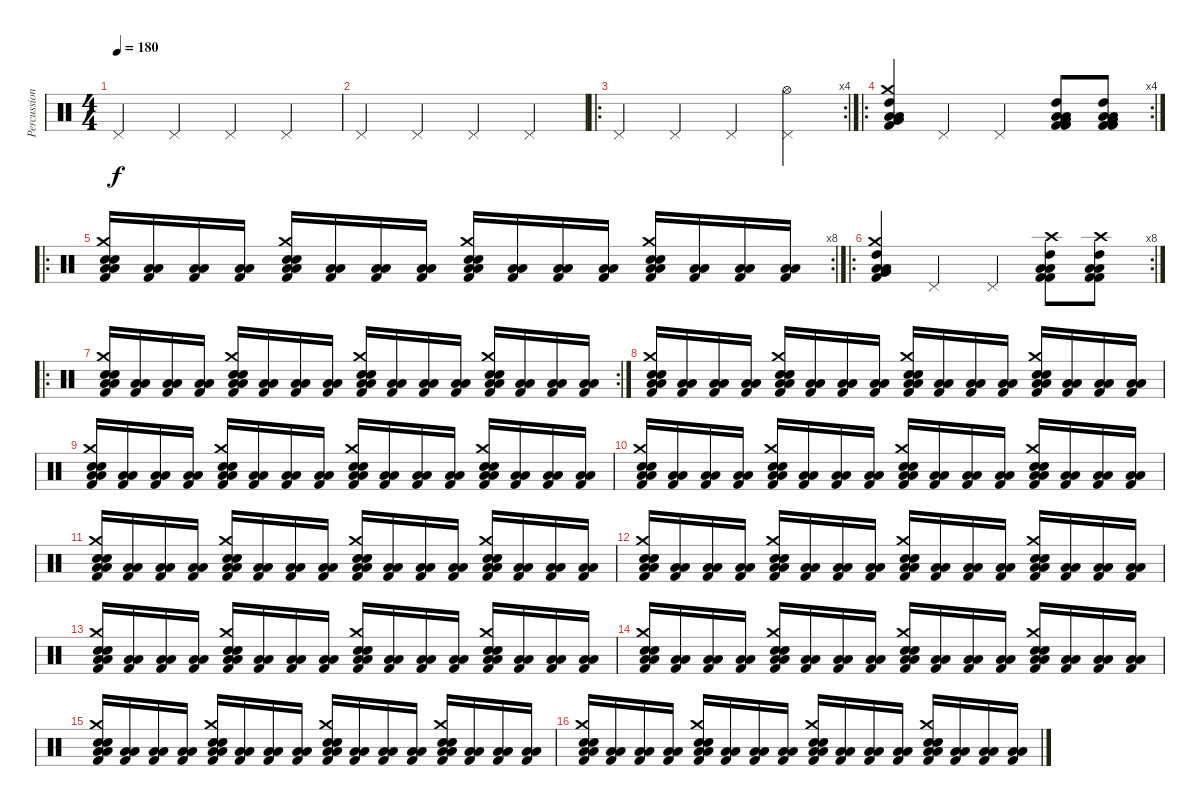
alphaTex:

\track ("Percussions" "Percussion") {instrument percussion}
\staff {score}
\articulation defaults
\ts (4 4)
\tempo 180
\clef neutral
\ks c "Pedal Hi-Hat (hit)".4{dy f volume 8} "Pedal Hi-Hat (hit)".4 "Pedal Hi-Hat (hit)".4 "Pedal Hi-Hat (hit)".4
|
"Pedal Hi-Hat (hit)".4 "Pedal Hi-Hat (hit)".4 "Pedal Hi-Hat (hit)".4 "Pedal Hi-Hat (hit)".4 |
\ro
\rc 4 "Pedal Hi-Hat (hit)".4{volume 16} "Pedal Hi-Hat (hit)".4 "Pedal Hi-Hat (hit)".4
("Hi-Hat (open)" "Pedal Hi-Hat (hit)").4 |
\ro
\rc 4
("Low Floor Tom (hit)" "Crash medium (hit)" "Kick (hit) 2" "Low Floor Tom (hit)" "High Tom (hit)" "Very Low Tom (hit)").4 "Pedal Hi-Hat (hit)".4 "Pedal Hi-Hat (hit)".4 ("Low Floor Tom (hit)" "Kick (hit) 2" "Kick (hit) 2" "Low Floor Tom (hit)" "High Tom (hit)" "Very Low Tom (hit)").8 ("Low Floor Tom (hit)" "Kick (hit) 2" "Kick (hit) 2" "Low Floor Tom (hit)" "High Tom (hit)" "Very Low Tom (hit)").8 |
\ro
\rc 8
("Low Floor Tom (hit)" "Kick (hit) 2" "Low Floor Tom (hit)" "Snare (hit) 2" "Electric Snare (hit)" "Crash medium (hit)").16 ("Low Floor Tom (hit)" "Kick (hit) 2" "Low Floor Tom (hit)").16 ("Low Floor Tom (hit)" "Kick (hit) 2" "Low Floor Tom (hit)").16 ("Low Floor Tom (hit)" "Kick (hit) 2" "Low Floor Tom (hit)").16 ("Low Floor Tom (hit)" "Kick (hit) 2" "Low Floor Tom (hit)" "Snare (hit) 2" "Electric Snare (hit)" "Crash medium (hit)").16 ("Low Floor Tom (hit)" "Kick (hit) 2" "Low Floor Tom (hit)").16 ("Low Floor Tom (hit)" "Kick (hit) 2" "Low Floor Tom (hit)").16 ("Low Floor Tom (hit)" "Kick (hit) 2" "Low Floor Tom (hit)").16 ("Low Floor Tom (hit)" "Kick (hit) 2" "Low Floor Tom (hit)" "Snare (hit) 2" "Electric Snare (hit)" "Crash medium (hit)").16 ("Low Floor Tom (hit)" "Kick (hit) 2" "Low Floor Tom (hit)").16 ("Low Floor Tom (hit)" "Kick (hit) 2" "Low Floor Tom (hit)").16 ("Low Floor Tom (hit)" "Kick (hit) 2" "Low Floor Tom (hit)").16 ("Low Floor Tom (hit)" "Kick (hit) 2" "Low Floor Tom (hit)" "Snare (hit) 2" "Electric Snare (hit)" "Crash medium (hit)").16 ("Low Floor Tom (hit)" "Kick (hit) 2" "Low Floor Tom (hit)").16 ("Low Floor Tom (hit)" "Kick (hit) 2" "Low Floor Tom (hit)").16 ("Low Floor Tom (hit)" "Kick (hit) 2" "Low Floor Tom (hit)").16 |
\ro
\rc 8
("Low Floor Tom (hit)" "Crash medium (hit)" "Kick (hit) 2" "Low Floor Tom (hit)" "High Tom (hit)" "Very Low Tom (hit)").4 "Pedal Hi-Hat (hit)".4 "Pedal Hi-Hat (hit)".4 ("Low Floor Tom (hit)" "Kick (hit) 2" "Kick (hit) 2" "Low Floor Tom (hit)" "High Tom (hit)" "Crash high (hit)").8 ("Low Floor Tom (hit)" "Kick (hit) 2" "Kick (hit) 2" "Low Floor Tom (hit)" "High Tom (hit)" "Crash high (hit)").8 |
\ro
\rc 2
("Low Floor Tom (hit)" "Kick (hit) 2" "Low Floor Tom (hit)" "Snare (hit) 2" "Electric Snare (hit)" "Crash medium (hit)").16 ("Low Floor Tom (hit)" "Kick (hit) 2" "Low Floor Tom (hit)").16 ("Low Floor Tom (hit)" "Kick (hit) 2" "Low Floor Tom (hit)").16 ("Low Floor Tom (hit)" "Kick (hit) 2" "Low Floor Tom (hit)").16 ("Low Floor Tom (hit)" "Kick (hit) 2" "Low Floor Tom (hit)" "Snare (hit) 2" "Electric Snare (hit)" "Crash medium (hit)").16 ("Low Floor Tom (hit)" "Kick (hit) 2" "Low Floor Tom (hit)").16 ("Low Floor Tom (hit)" "Kick (hit) 2" "Low Floor Tom (hit)").16 ("Low Floor Tom (hit)" "Kick (hit) 2" "Low Floor Tom (hit)").16 ("Low Floor Tom (hit)" "Kick (hit) 2" "Low Floor Tom (hit)" "Snare (hit) 2" "Electric Snare (hit)" "Crash medium (hit)").16 ("Low Floor Tom (hit)" "Kick (hit) 2" "Low Floor Tom (hit)").16 ("Low Floor Tom (hit)" "Kick (hit) 2" "Low Floor Tom (hit)").16 ("Low Floor Tom (hit)" "Kick (hit) 2" "Low Floor Tom (hit)").16 ("Low Floor Tom (hit)" "Kick (hit) 2" "Low Floor Tom (hit)" "Snare (hit) 2" "Electric Snare (hit)" "Crash medium (hit)").16 ("Low Floor Tom (hit)" "Kick (hit) 2" "Low Floor Tom (hit)").16 ("Low Floor Tom (hit)" "Kick (hit) 2" "Low Floor Tom (hit)").16 ("Low Floor Tom (hit)" "Kick (hit) 2" "Low Floor Tom (hit)").16 |
("Low Floor Tom (hit)" "Kick (hit) 2" "Low Floor Tom (hit)" "Snare (hit) 2" "Electric Snare (hit)" "Crash medium (hit)").16{volume 13} ("Low Floor Tom (hit)" "Kick (hit) 2" "Low Floor Tom (hit)").16 ("Low Floor Tom (hit)" "Kick (hit) 2" "Low Floor Tom (hit)").16 ("Low Floor Tom (hit)" "Kick (hit) 2" "Low Floor Tom (hit)").16 ("Low Floor Tom (hit)" "Kick (hit) 2" "Low Floor Tom (hit)" "Snare (hit) 2" "Electric Snare (hit)" "Crash medium (hit)").16 ("Low Floor Tom (hit)" "Kick (hit) 2" "Low Floor Tom (hit)").16 ("Low Floor Tom (hit)" "Kick (hit) 2" "Low Floor Tom (hit)").16 ("Low Floor Tom (hit)" "Kick (hit) 2" "Low Floor Tom (hit)").16 ("Low Floor Tom (hit)" "Kick (hit) 2" "Low Floor Tom (hit)" "Snare (hit) 2" "Electric Snare (hit)" "Crash medium (hit)").16 ("Low Floor Tom (hit)" "Kick (hit) 2" "Low Floor Tom (hit)").16 ("Low Floor Tom (hit)" "Kick (hit) 2" "Low Floor Tom (hit)").16 ("Low Floor Tom (hit)" "Kick (hit) 2" "Low Floor Tom (hit)").16 ("Low Floor Tom (hit)" "Kick (hit) 2" "Low Floor Tom (hit)" "Snare (hit) 2" "Electric Snare (hit)" "Crash medium (hit)").16 ("Low Floor Tom (hit)" "Kick (hit) 2" "Low Floor Tom (hit)").16 ("Low Floor Tom (hit)" "Kick (hit) 2" "Low Floor Tom (hit)").16 ("Low Floor Tom (hit)" "Kick (hit) 2" "Low Floor Tom (hit)").16 |
("Low Floor Tom (hit)" "Kick (hit) 2" "Low Floor Tom (hit)" "Snare (hit) 2" "Electric Snare (hit)" "Crash medium (hit)").16{volume 11} ("Low Floor Tom (hit)" "Kick (hit) 2" "Low Floor Tom (hit)").16 ("Low Floor Tom (hit)" "Kick (hit) 2" "Low Floor Tom (hit)").16 ("Low Floor Tom (hit)" "Kick (hit) 2" "Low Floor Tom (hit)").16 ("Low Floor Tom (hit)" "Kick (hit) 2" "Low Floor Tom (hit)" "Snare (hit) 2" "Electric Snare (hit)" "Crash medium (hit)").16 ("Low Floor Tom (hit)" "Kick (hit) 2" "Low Floor Tom (hit)").16 ("Low Floor Tom (hit)" "Kick (hit) 2" "Low Floor Tom (hit)").16 ("Low Floor Tom (hit)" "Kick (hit) 2" "Low Floor Tom (hit)").16 ("Low Floor Tom (hit)" "Kick (hit) 2" "Low Floor Tom (hit)" "Snare (hit) 2" "Electric Snare (hit)" "Crash medium (hit)").16 ("Low Floor Tom (hit)" "Kick (hit) 2" "Low Floor Tom (hit)").16 ("Low Floor Tom (hit)" "Kick (hit) 2" "Low Floor Tom (hit)").16 ("Low Floor Tom (hit)" "Kick (hit) 2" "Low Floor Tom (hit)").16 ("Low Floor Tom (hit)" "Kick (hit) 2" "Low Floor Tom (hit)" "Snare (hit) 2" "Electric Snare (hit)" "Crash medium (hit)").16 ("Low Floor Tom (hit)" "Kick (hit) 2" "Low Floor Tom (hit)").16 ("Low Floor Tom (hit)" "Kick (hit) 2" "Low Floor Tom (hit)").16 ("Low Floor Tom (hit)" "Kick (hit) 2" "Low Floor Tom (hit)").16 |
("Low Floor Tom (hit)" "Kick (hit) 2" "Low Floor Tom (hit)" "Snare (hit) 2" "Electric Snare (hit)" "Crash medium (hit)").16{volume 10} ("Low Floor Tom (hit)" "Kick (hit) 2" "Low Floor Tom (hit)").16 ("Low Floor Tom (hit)" "Kick (hit) 2" "Low Floor Tom (hit)").16 ("Low Floor Tom (hit)" "Kick (hit) 2" "Low Floor Tom (hit)").16 ("Low Floor Tom (hit)" "Kick (hit) 2" "Low Floor Tom (hit)" "Snare (hit) 2" "Electric Snare (hit)" "Crash medium (hit)").16 ("Low Floor Tom (hit)" "Kick (hit) 2" "Low Floor Tom (hit)").16 ("Low Floor Tom (hit)" "Kick (hit) 2" "Low Floor Tom (hit)").16 ("Low Floor Tom (hit)" "Kick (hit) 2" "Low Floor Tom (hit)").16 ("Low Floor Tom (hit)" "Kick (hit) 2" "Low Floor Tom (hit)" "Snare (hit) 2" "Electric Snare (hit)" "Crash medium (hit)").16 ("Low Floor Tom (hit)" "Kick (hit) 2" "Low Floor Tom (hit)").16 ("Low Floor Tom (hit)" "Kick (hit) 2" "Low Floor Tom (hit)").16 ("Low Floor Tom (hit)" "Kick (hit) 2" "Low Floor Tom (hit)").16 ("Low Floor Tom (hit)" "Kick (hit) 2" "Low Floor Tom (hit)" "Snare (hit) 2" "Electric Snare (hit)" "Crash medium (hit)").16 ("Low Floor Tom (hit)" "Kick (hit) 2" "Low Floor Tom (hit)").16 ("Low Floor Tom (hit)" "Kick (hit) 2" "Low Floor Tom (hit)").16 ("Low Floor Tom (hit)" "Kick (hit) 2" "Low Floor Tom (hit)").16 |
("Low Floor Tom (hit)" "Kick (hit) 2" "Low Floor Tom (hit)" "Snare (hit) 2" "Electric Snare (hit)" "Crash medium (hit)").16{volume 9} ("Low Floor Tom (hit)" "Kick (hit) 2" "Low Floor Tom (hit)").16 ("Low Floor Tom (hit)" "Kick (hit) 2" "Low Floor Tom (hit)").16 ("Low Floor Tom (hit)" "Kick (hit) 2" "Low Floor Tom (hit)").16 ("Low Floor Tom (hit)" "Kick (hit) 2" "Low Floor Tom (hit)" "Snare (hit) 2" "Electric Snare (hit)" "Crash medium (hit)").16 ("Low Floor Tom (hit)" "Kick (hit) 2" "Low Floor Tom (hit)").16 ("Low Floor Tom (hit)" "Kick (hit) 2" "Low Floor Tom (hit)").16 ("Low Floor Tom (hit)" "Kick (hit) 2" "Low Floor Tom (hit)").16 ("Low Floor Tom (hit)" "Kick (hit) 2" "Low Floor Tom (hit)" "Snare (hit) 2" "Electric Snare (hit)" "Crash medium (hit)").16 ("Low Floor Tom (hit)" "Kick (hit) 2" "Low Floor Tom (hit)").16 ("Low Floor Tom (hit)" "Kick (hit) 2" "Low Floor Tom (hit)").16 ("Low Floor Tom (hit)" "Kick (hit) 2" "Low Floor Tom (hit)").16 ("Low Floor Tom (hit)" "Kick (hit) 2" "Low Floor Tom (hit)" "Snare (hit) 2" "Electric Snare (hit)" "Crash medium (hit)").16 ("Low Floor Tom (hit)" "Kick (hit) 2" "Low Floor Tom (hit)").16 ("Low Floor Tom (hit)" "Kick (hit) 2" "Low Floor Tom (hit)").16 ("Low Floor Tom (hit)" "Kick (hit) 2" "Low Floor Tom (hit)").16 |
("Low Floor Tom (hit)" "Kick (hit) 2" "Low Floor Tom (hit)" "Snare (hit) 2" "Electric Snare (hit)" "Crash medium (hit)").16{volume 7} ("Low Floor Tom (hit)" "Kick (hit) 2" "Low Floor Tom (hit)").16 ("Low Floor Tom (hit)" "Kick (hit) 2" "Low Floor Tom (hit)").16 ("Low Floor Tom (hit)" "Kick (hit) 2" "Low Floor Tom (hit)").16 ("Low Floor Tom (hit)" "Kick (hit) 2" "Low Floor Tom (hit)" "Snare (hit) 2" "Electric Snare (hit)" "Crash medium (hit)").16 ("Low Floor Tom (hit)" "Kick (hit) 2" "Low Floor Tom (hit)").16 ("Low Floor Tom (hit)" "Kick (hit) 2" "Low Floor Tom (hit)").16 ("Low Floor Tom (hit)" "Kick (hit) 2" "Low Floor Tom (hit)").16 ("Low Floor Tom (hit)" "Kick (hit) 2" "Low Floor Tom (hit)" "Snare (hit) 2" "Electric Snare (hit)" "Crash medium (hit)").16 ("Low Floor Tom (hit)" "Kick (hit) 2" "Low Floor Tom (hit)").16 ("Low Floor Tom (hit)" "Kick (hit) 2" "Low Floor Tom (hit)").16 ("Low Floor Tom (hit)" "Kick (hit) 2" "Low Floor Tom (hit)").16 ("Low Floor Tom (hit)" "Kick (hit) 2" "Low Floor Tom (hit)" "Snare (hit) 2" "Electric Snare (hit)" "Crash medium (hit)").16 ("Low Floor Tom (hit)" "Kick (hit) 2" "Low Floor Tom (hit)").16 ("Low Floor Tom (hit)" "Kick (hit) 2" "Low Floor Tom (hit)").16 ("Low Floor Tom (hit)" "Kick (hit) 2" "Low Floor Tom (hit)").16 |
("Low Floor Tom (hit)" "Kick (hit) 2" "Low Floor Tom (hit)" "Snare (hit) 2" "Electric Snare (hit)" "Crash medium (hit)").16{volume 6} ("Low Floor Tom (hit)" "Kick (hit) 2" "Low Floor Tom (hit)").16 ("Low Floor Tom (hit)" "Kick (hit) 2" "Low Floor Tom (hit)").16 ("Low Floor Tom (hit)" "Kick (hit) 2" "Low Floor Tom (hit)").16 ("Low Floor Tom (hit)" "Kick (hit) 2" "Low Floor Tom (hit)" "Snare (hit) 2" "Electric Snare (hit)" "Crash medium (hit)").16 ("Low Floor Tom (hit)" "Kick (hit) 2" "Low Floor Tom (hit)").16 ("Low Floor Tom (hit)" "Kick (hit) 2" "Low Floor Tom (hit)").16 ("Low Floor Tom (hit)" "Kick (hit) 2" "Low Floor Tom (hit)").16 ("Low Floor Tom (hit)" "Kick (hit) 2" "Low Floor Tom (hit)" "Snare (hit) 2" "Electric Snare (hit)" "Crash medium (hit)").16 ("Low Floor Tom (hit)" "Kick (hit) 2" "Low Floor Tom (hit)").16 ("Low Floor Tom (hit)" "Kick (hit) 2" "Low Floor Tom (hit)").16 ("Low Floor Tom (hit)" "Kick (hit) 2" "Low Floor Tom (hit)").16 ("Low Floor Tom (hit)" "Kick (hit) 2" "Low Floor Tom (hit)" "Snare (hit) 2" "Electric Snare (hit)" "Crash medium (hit)").16 ("Low Floor Tom (hit)" "Kick (hit) 2" "Low Floor Tom (hit)").16 ("Low Floor Tom (hit)" "Kick (hit) 2" "Low Floor Tom (hit)").16 ("Low Floor Tom (hit)" "Kick (hit) 2" "Low Floor Tom (hit)").16 |
("Low Floor Tom (hit)" "Kick (hit) 2" "Low Floor Tom (hit)" "Snare (hit) 2" "Electric Snare (hit)" "Crash medium (hit)").16{volume 5} ("Low Floor Tom (hit)" "Kick (hit) 2" "Low Floor Tom (hit)").16 ("Low Floor Tom (hit)" "Kick (hit) 2" "Low Floor Tom (hit)").16 ("Low Floor Tom (hit)" "Kick (hit) 2" "Low Floor Tom (hit)").16 ("Low Floor Tom (hit)" "Kick (hit) 2" "Low Floor Tom (hit)" "Snare (hit) 2" "Electric Snare (hit)" "Crash medium (hit)").16 ("Low Floor Tom (hit)" "Kick (hit) 2" "Low Floor Tom (hit)").16 ("Low Floor Tom (hit)" "Kick (hit) 2" "Low Floor Tom (hit)").16 ("Low Floor Tom (hit)" "Kick (hit) 2" "Low Floor Tom (hit)").16 ("Low Floor Tom (hit)" "Kick (hit) 2" "Low Floor Tom (hit)" "Snare (hit) 2" "Electric Snare (hit)" "Crash medium (hit)").16 ("Low Floor Tom (hit)" "Kick (hit) 2" "Low Floor Tom (hit)").16 ("Low Floor Tom (hit)" "Kick (hit) 2" "Low Floor Tom (hit)").16 ("Low Floor Tom (hit)" "Kick (hit) 2" "Low Floor Tom (hit)").16 ("Low Floor Tom (hit)" "Kick (hit) 2" "Low Floor Tom (hit)" "Snare (hit) 2" "Electric Snare (hit)" "Crash medium (hit)").16 ("Low Floor Tom (hit)" "Kick (hit) 2" "Low Floor Tom (hit)").16 ("Low Floor Tom (hit)" "Kick (hit) 2" "Low Floor Tom (hit)").16 ("Low Floor Tom (hit)" "Kick (hit) 2" "Low Floor Tom (hit)").16 |
("Low Floor Tom (hit)" "Kick (hit) 2" "Low Floor Tom (hit)" "Snare (hit) 2" "Electric Snare (hit)" "Crash medium (hit)").16{volume 4} ("Low Floor Tom (hit)" "Kick (hit) 2" "Low Floor Tom (hit)").16 ("Low Floor Tom (hit)" "Kick (hit) 2" "Low Floor Tom (hit)").16 ("Low Floor Tom (hit)" "Kick (hit) 2" "Low Floor Tom (hit)").16 ("Low Floor Tom (hit)" "Kick (hit) 2" "Low Floor Tom (hit)" "Snare (hit) 2" "Electric Snare (hit)" "Crash medium (hit)").16 ("Low Floor Tom (hit)" "Kick (hit) 2" "Low Floor Tom (hit)").16 ("Low Floor Tom (hit)" "Kick (hit) 2" "Low Floor Tom (hit)").16 ("Low Floor Tom (hit)" "Kick (hit) 2" "Low Floor Tom (hit)").16 ("Low Floor Tom (hit)" "Kick (hit) 2" "Low Floor Tom (hit)" "Snare (hit) 2" "Electric Snare (hit)" "Crash medium (hit)").16 ("Low Floor Tom (hit)" "Kick (hit) 2" "Low Floor Tom (hit)").16 ("Low Floor Tom (hit)" "Kick (hit) 2" "Low Floor Tom (hit)").16 ("Low Floor Tom (hit)" "Kick (hit) 2" "Low Floor Tom (hit)").16 ("Low Floor Tom (hit)" "Kick (hit) 2" "Low Floor Tom (hit)" "Snare (hit) 2" "Electric Snare (hit)" "Crash medium (hit)").16 ("Low Floor Tom (hit)" "Kick (hit) 2" "Low Floor Tom (hit)").16 ("Low Floor Tom (hit)" "Kick (hit) 2" "Low Floor Tom (hit)").16 ("Low Floor Tom (hit)" "Kick (hit) 2" "Low Floor Tom (hit)").16 |
("Low Floor Tom (hit)" "Kick (hit) 2" "Low Floor Tom (hit)" "Snare (hit) 2" "Electric Snare (hit)" "Crash medium (hit)").16{volume 3} ("Low Floor Tom (hit)" "Kick (hit) 2" "Low Floor Tom (hit)").16 ("Low Floor Tom (hit)" "Kick (hit) 2" "Low Floor Tom (hit)").16 ("Low Floor Tom (hit)" "Kick (hit) 2" "Low Floor Tom (hit)").16 ("Low Floor Tom (hit)" "Kick (hit) 2" "Low Floor Tom (hit)" "Snare (hit) 2" "Electric Snare (hit)" "Crash medium (hit)").16 ("Low Floor Tom (hit)" "Kick (hit) 2" "Low Floor Tom (hit)").16 ("Low Floor Tom (hit)" "Kick (hit) 2" "Low Floor Tom (hit)").16 ("Low Floor Tom (hit)" "Kick (hit) 2" "Low Floor Tom (hit)").16 ("Low Floor Tom (hit)" "Kick (hit) 2" "Low Floor Tom (hit)" "Snare (hit) 2" "Electric Snare (hit)" "Crash medium (hit)").16 ("Low Floor Tom (hit)" "Kick (hit) 2" "Low Floor Tom (hit)").16 ("Low Floor Tom (hit)" "Kick (hit) 2" "Low Floor Tom (hit)").16 ("Low Floor Tom (hit)" "Kick (hit) 2" "Low Floor Tom (hit)").16 ("Low Floor Tom (hit)" "Kick (hit) 2" "Low Floor Tom (hit)" "Snare (hit) 2" "Electric Snare (hit)" "Crash medium (hit)").16 ("Low Floor Tom (hit)" "Kick (hit) 2" "Low Floor Tom (hit)").16 ("Low Floor Tom (hit)" "Kick (hit) 2" "Low Floor Tom (hit)").16 ("Low Floor Tom (hit)" "Kick (hit) 2" "Low Floor Tom (hit)").16
